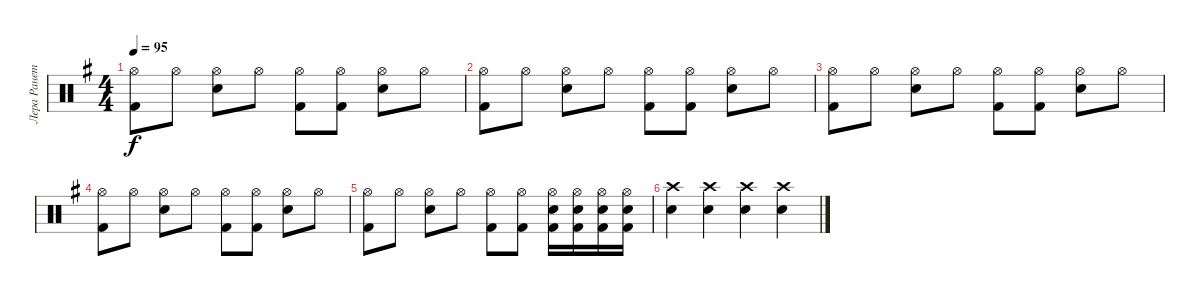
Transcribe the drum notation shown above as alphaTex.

\track ("Лера Ранетка" "Лера Ранет") {instrument percussion}
\staff {score}
\articulation defaults
\ts (4 4)
\tempo 95
\clef neutral
\ks eminor
("Hi-Hat (open)" "Kick (hit) 2").8{dy f} "Hi-Hat (open)".8 ("Hi-Hat (open)" "Electric Snare (hit)").8 "Hi-Hat (open)".8 ("Hi-Hat (open)" "Kick (hit) 2").8 ("Hi-Hat (open)" "Kick (hit) 2").8 ("Hi-Hat (open)" "Electric Snare (hit)").8 "Hi-Hat (open)".8 |
("Hi-Hat (open)" "Kick (hit) 2").8 "Hi-Hat (open)".8 ("Hi-Hat (open)" "Electric Snare (hit)").8 "Hi-Hat (open)".8 ("Hi-Hat (open)" "Kick (hit) 2").8 ("Hi-Hat (open)" "Kick (hit) 2").8 ("Hi-Hat (open)" "Electric Snare (hit)").8 "Hi-Hat (open)".8 |
("Hi-Hat (open)" "Kick (hit) 2").8 "Hi-Hat (open)".8 ("Hi-Hat (open)" "Electric Snare (hit)").8 "Hi-Hat (open)".8 ("Hi-Hat (open)" "Kick (hit) 2").8 ("Hi-Hat (open)" "Kick (hit) 2").8 ("Hi-Hat (open)" "Electric Snare (hit)").8 "Hi-Hat (open)".8 |
("Hi-Hat (open)" "Kick (hit) 2").8 "Hi-Hat (open)".8 ("Hi-Hat (open)" "Electric Snare (hit)").8 "Hi-Hat (open)".8 ("Hi-Hat (open)" "Kick (hit) 2").8 ("Hi-Hat (open)" "Kick (hit) 2").8 ("Hi-Hat (open)" "Electric Snare (hit)").8 "Hi-Hat (open)".8 |
("Hi-Hat (open)" "Kick (hit) 2").8 "Hi-Hat (open)".8 ("Hi-Hat (open)" "Electric Snare (hit)").8 "Hi-Hat (open)".8 ("Hi-Hat (open)" "Kick (hit) 2").8 ("Hi-Hat (open)" "Kick (hit) 2").8 ("Hi-Hat (open)" "Kick (hit) 2" "Electric Snare (hit)").16 ("Hi-Hat (open)" "Kick (hit) 2" "Electric Snare (hit)").16 ("Hi-Hat (open)" "Kick (hit) 2" "Electric Snare (hit)").16 ("Hi-Hat (open)" "Kick (hit) 2" "Electric Snare (hit)").16 |
("Crash high (hit)" "Electric Snare (hit)").4 ("Crash high (hit)" "Electric Snare (hit)").4 ("Crash high (hit)" "Electric Snare (hit)").4 ("Crash high (hit)" "Electric Snare (hit)").4
